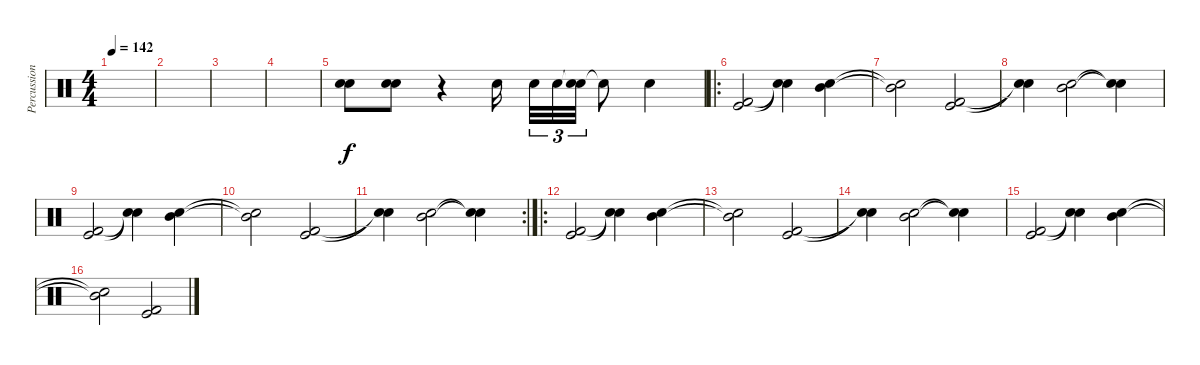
\track ("Percussion" "Percussion") {instrument percussion}
\staff {score}
\articulation defaults
\ts (4 4)
\tempo 142
\clef neutral
\ks c
|
|
|
|
("Snare (hit) 2" "Electric Snare (hit)").8 ("Snare (hit) 2" "Electric Snare (hit)").8 r.4 "Snare (hit) 2".16 "Snare (hit) 2".32{tu (3 2) volume 5} "Snare (hit) 2".32{tu (3 2)} ("Snare (hit)"{t} "Snare (hit) 2").32{tu (3 2)} "Snare (hit)"{t}.8{volume 13} "Electric Snare (hit)".4 |
\ro
("Kick (hit)" "Kick (hit) 2").2 ("Snare (hit)"{t} "Snare (hit)"{t}).4 ("Mid Tom (hit)" "Electric Snare (hit)").4 |
("Mid Tom (hit)"{t} "Electric Snare (hit)"{t}).2 ("Kick (hit)" "Kick (hit) 2").2 |
("Snare (hit)"{t} "Snare (hit)"{t}).4 ("Mid Tom (hit)" "Electric Snare (hit)").2 ("Snare (hit)"{t} "Snare (hit)"{t}).4 |
("Kick (hit)" "Kick (hit) 2").2 ("Snare (hit)"{t} "Snare (hit)"{t}).4 ("Mid Tom (hit)" "Electric Snare (hit)").4 |
("Mid Tom (hit)"{t} "Electric Snare (hit)"{t}).2 ("Kick (hit)" "Kick (hit) 2").2 |
\rc 2
("Snare (hit)"{t} "Snare (hit)"{t}).4 ("Mid Tom (hit)" "Electric Snare (hit)").2 ("Snare (hit)"{t} "Snare (hit)"{t}).4 |
\ro
("Kick (hit)" "Kick (hit) 2").2 ("Snare (hit)"{t} "Snare (hit)"{t}).4 ("Mid Tom (hit)" "Electric Snare (hit)").4 |
("Mid Tom (hit)"{t} "Electric Snare (hit)"{t}).2 ("Kick (hit)" "Kick (hit) 2").2 |
("Snare (hit)"{t} "Snare (hit)"{t}).4 ("Mid Tom (hit)" "Electric Snare (hit)").2 ("Snare (hit)"{t} "Snare (hit)"{t}).4 |
("Kick (hit)" "Kick (hit) 2").2 ("Snare (hit)"{t} "Snare (hit)"{t}).4 ("Mid Tom (hit)" "Electric Snare (hit)").4 |
("Mid Tom (hit)"{t} "Electric Snare (hit)"{t}).2 ("Kick (hit)" "Kick (hit) 2").2
